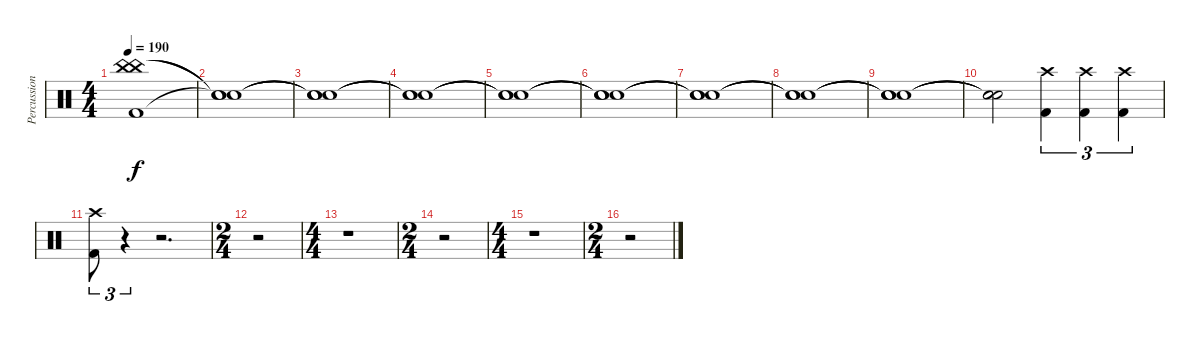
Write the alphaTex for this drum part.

\track ("Percussion" "Percussion") {instrument percussion}
\staff {score}
\articulation defaults
\ts (4 4)
\tempo 190
\clef neutral
\ks c
("Kick (hit) 2" "China (hit)" "China (hit)").1{dy f} |
("Snare (hit)"{t} "Snare (hit)"{t} "Snare (hit)"{t}).1 |
("Snare (hit)"{t} "Snare (hit)"{t} "Snare (hit)"{t}).1 |
("Snare (hit)"{t} "Snare (hit)"{t} "Snare (hit)"{t}).1 |
("Snare (hit)"{t} "Snare (hit)"{t} "Snare (hit)"{t}).1 |
("Snare (hit)"{t} "Snare (hit)"{t} "Snare (hit)"{t}).1 |
("Snare (hit)"{t} "Snare (hit)"{t} "Snare (hit)"{t}).1 |
("Snare (hit)"{t} "Snare (hit)"{t} "Snare (hit)"{t}).1 |
("Snare (hit)"{t} "Snare (hit)"{t} "Snare (hit)"{t}).1 |
("Snare (hit)"{t} "Snare (hit)"{t} "Snare (hit)"{t}).2 ("Kick (hit) 2" "Crash high (hit)").4{tu (3 2)} ("Kick (hit) 2" "Crash high (hit)").4{tu (3 2)} ("Kick (hit) 2" "Crash high (hit)").4{tu (3 2)} |
("Kick (hit) 2" "Crash high (hit)").8{tu (3 2)} r.4{tu (3 2)} r.2{d} |
\ts (2 4)
r.2 |
\ts (4 4)
r.1 |
\ts (2 4)
r.2 |
\ts (4 4)
r.1 |
\ts (2 4)
r.2
